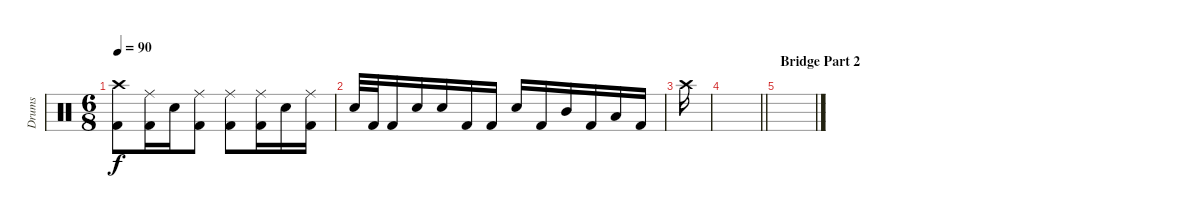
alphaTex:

\track ("Drums" "Drums") {instrument percussion}
\staff {score}
\articulation defaults
\ts (6 8)
\tempo 90
\clef neutral
\ks c
("Crash high (hit)" "Kick (hit) 2").8{dy f} ("Ride (middle)" "Kick (hit) 2").16 "Snare (hit) 2".16 ("Ride (middle)" "Kick (hit) 2").8 ("Ride (middle)" "Kick (hit) 2").8 ("Ride (middle)" "Kick (hit) 2").16 "Snare (hit) 2".16 ("Ride (middle)" "Kick (hit) 2").16 |
"Snare (hit) 2".32 "Kick (hit) 2".32 "Kick (hit) 2".16 "Snare (hit) 2".16 "Snare (hit) 2".16 "Kick (hit) 2".16 "Kick (hit) 2".16 "Snare (hit) 2".16 "Kick (hit) 2".16 "Mid Tom (hit)".16 "Kick (hit) 2".16 "Low Tom (hit)".16 "Kick (hit) 2".16 |
"Crash high (hit)".16 |
\barLineRight lightlight
|
\section ("" "Bridge Part 2")
